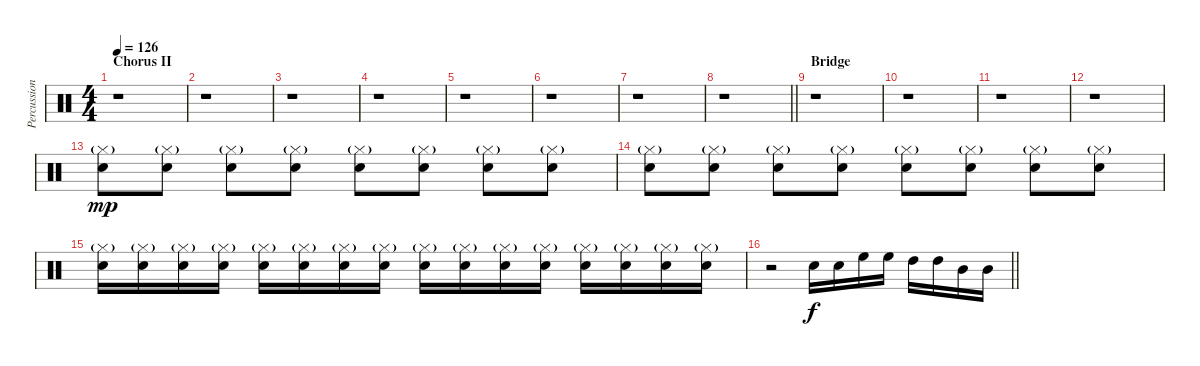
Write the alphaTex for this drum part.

\track ("Percussion" "Percussion") {instrument percussion}
\staff {score}
\articulation defaults
\ts (4 4)
\section ("" "Chorus II")
\tempo 126
\clef neutral
\ks c
r.1{dy f} |
r.1 |
r.1 |
r.1 |
r.1 |
r.1 |
r.1 |
\barLineRight lightlight
r.1 |
\section ("" "Bridge")
r.1 |
r.1 |
r.1 |
r.1 |
("Hi-Hat (closed)"{g} "Snare (hit) 2").8{dy mp} ("Hi-Hat (closed)"{g} "Snare (hit) 2").8 ("Hi-Hat (closed)"{g} "Snare (hit) 2").8 ("Hi-Hat (closed)"{g} "Snare (hit) 2").8 ("Hi-Hat (closed)"{g} "Snare (hit) 2").8 ("Hi-Hat (closed)"{g} "Snare (hit) 2").8 ("Hi-Hat (closed)"{g} "Snare (hit) 2").8 ("Hi-Hat (closed)"{g} "Snare (hit) 2").8 |
("Hi-Hat (closed)"{g} "Snare (hit) 2").8 ("Hi-Hat (closed)"{g} "Snare (hit) 2").8 ("Hi-Hat (closed)"{g} "Snare (hit) 2").8 ("Hi-Hat (closed)"{g} "Snare (hit) 2").8 ("Hi-Hat (closed)"{g} "Snare (hit) 2").8 ("Hi-Hat (closed)"{g} "Snare (hit) 2").8 ("Hi-Hat (closed)"{g} "Snare (hit) 2").8 ("Hi-Hat (closed)"{g} "Snare (hit) 2").8 |
("Hi-Hat (closed)"{g} "Snare (hit) 2").16 ("Hi-Hat (closed)"{g} "Snare (hit) 2").16 ("Hi-Hat (closed)"{g} "Snare (hit) 2").16 ("Hi-Hat (closed)"{g} "Snare (hit) 2").16 ("Hi-Hat (closed)"{g} "Snare (hit) 2").16 ("Hi-Hat (closed)"{g} "Snare (hit) 2").16 ("Hi-Hat (closed)"{g} "Snare (hit) 2").16 ("Hi-Hat (closed)"{g} "Snare (hit) 2").16 ("Hi-Hat (closed)"{g} "Snare (hit) 2").16 ("Hi-Hat (closed)"{g} "Snare (hit) 2").16 ("Hi-Hat (closed)"{g} "Snare (hit) 2").16 ("Hi-Hat (closed)"{g} "Snare (hit) 2").16 ("Hi-Hat (closed)"{g} "Snare (hit) 2").16 ("Hi-Hat (closed)"{g} "Snare (hit) 2").16 ("Hi-Hat (closed)"{g} "Snare (hit) 2").16 ("Hi-Hat (closed)"{g} "Snare (hit) 2").16 |
\barLineRight lightlight
r.2 "Snare (hit) 2".16{dy f} "Snare (hit) 2".16 "High Floor Tom (hit)".16 "High Floor Tom (hit)".16 "High Tom (hit)".16 "High Tom (hit)".16 "Mid Tom (hit)".16 "Mid Tom (hit)".16
